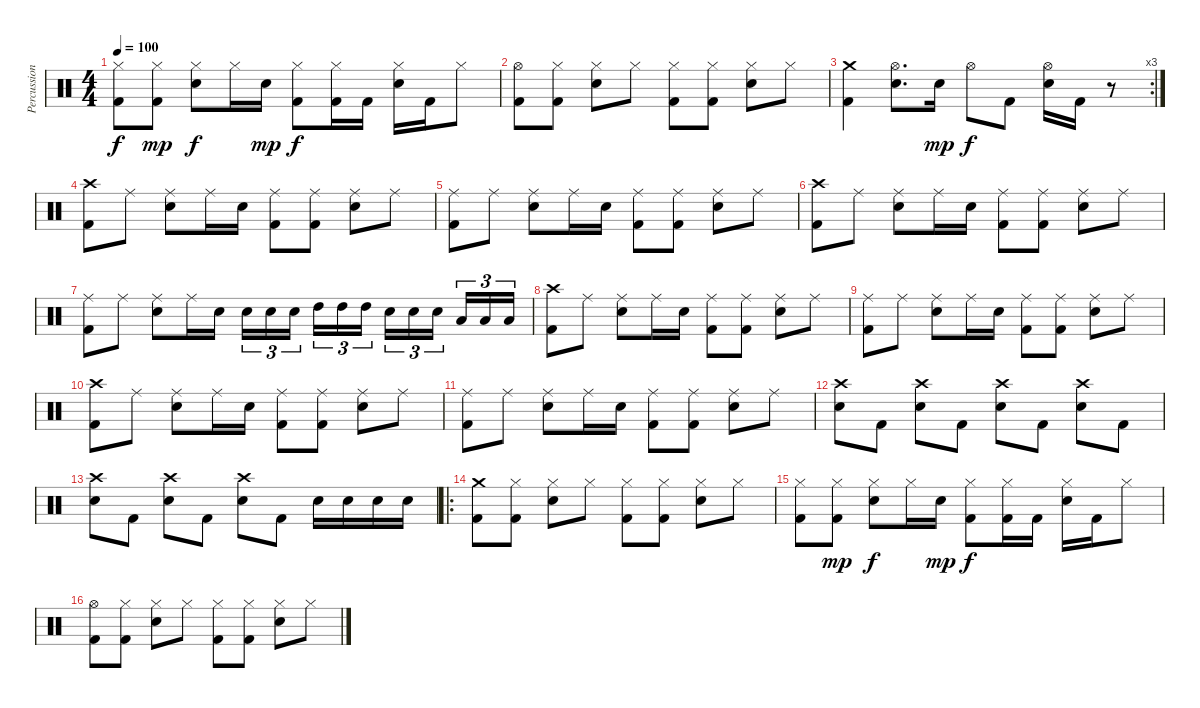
\track ("Percussion" "Percussion") {instrument percussion}
\staff {score}
\articulation defaults
\ts (4 4)
\tempo 100
\clef neutral
\ks c
("Kick (hit) 2" "Hi-Hat (closed)").8{dy f} ("Kick (hit) 2" "Hi-Hat (closed)").8{dy mp} ("Electric Snare (hit)" "Hi-Hat (closed)").8{dy f} "Hi-Hat (closed)".16 "Electric Snare (hit)".16{dy mp} ("Hi-Hat (closed)" "Kick (hit) 2").8{dy f} ("Hi-Hat (closed)" "Kick (hit) 2").16 "Kick (hit) 2".16 ("Electric Snare (hit)" "Hi-Hat (closed)").16 "Kick (hit) 2".16 "Hi-Hat (closed)".8 |
("Kick (hit) 2" "Hi-Hat (open)").8 ("Kick (hit) 2" "Hi-Hat (closed)").8 ("Electric Snare (hit)" "Hi-Hat (closed)").8 "Hi-Hat (closed)".8 ("Hi-Hat (closed)" "Kick (hit) 2").8 ("Hi-Hat (closed)" "Kick (hit) 2").8 ("Hi-Hat (closed)" "Electric Snare (hit)").8 "Hi-Hat (closed)".8 |
\rc 3
("Kick (hit) 2" "Crash medium (hit)").4 ("Electric Snare (hit)" "Hi-Hat (open)").8{d} "Electric Snare (hit)".16{dy mp} "Hi-Hat (open)".8{dy f} "Kick (hit) 2".8 ("Electric Snare (hit)" "Hi-Hat (open)").16 "Kick (hit) 2".16 r.8 |
("Kick (hit) 2" "Crash high (hit)").8 "Ride (middle)".8 ("Electric Snare (hit)" "Ride (middle)").8 "Ride (middle)".16 "Electric Snare (hit)".16 ("Ride (middle)" "Kick (hit) 2").8 ("Ride (middle)" "Kick (hit) 2").8 ("Electric Snare (hit)" "Ride (middle)").8 "Ride (middle)".8 |
("Kick (hit) 2" "Ride (middle)").8 "Ride (middle)".8 ("Electric Snare (hit)" "Ride (middle)").8 "Ride (middle)".16 "Electric Snare (hit)".16 ("Ride (middle)" "Kick (hit) 2").8 ("Ride (middle)" "Kick (hit) 2").8 ("Electric Snare (hit)" "Ride (middle)").8 "Ride (middle)".8 |
("Kick (hit) 2" "Crash high (hit)").8 "Ride (middle)".8 ("Electric Snare (hit)" "Ride (middle)").8 "Ride (middle)".16 "Electric Snare (hit)".16 ("Ride (middle)" "Kick (hit) 2").8 ("Ride (middle)" "Kick (hit) 2").8 ("Electric Snare (hit)" "Ride (middle)").8 "Ride (middle)".8 |
("Kick (hit) 2" "Ride (middle)").8 "Ride (middle)".8 ("Electric Snare (hit)" "Ride (middle)").8 "Ride (middle)".16 "Electric Snare (hit)".16 "Electric Snare (hit)".16{tu (3 2)} "Electric Snare (hit)".16{tu (3 2)} "Electric Snare (hit)".16{tu (3 2) beam splitsecondary} "High Tom (hit)".16{tu (3 2)} "High Tom (hit)".16{tu (3 2)} "High Tom (hit)".16{tu (3 2)} "Electric Snare (hit)".16{tu (3 2)} "Electric Snare (hit)".16{tu (3 2)} "Electric Snare (hit)".16{tu (3 2) beam splitsecondary} "Low Tom (hit)".16{tu (3 2)} "Low Tom (hit)".16{tu (3 2)} "Low Tom (hit)".16{tu (3 2)} |
("Kick (hit) 2" "Crash high (hit)").8 "Ride (middle)".8 ("Electric Snare (hit)" "Ride (middle)").8 "Ride (middle)".16 "Electric Snare (hit)".16 ("Ride (middle)" "Kick (hit) 2").8 ("Ride (middle)" "Kick (hit) 2").8 ("Electric Snare (hit)" "Ride (middle)").8 "Ride (middle)".8 |
("Kick (hit) 2" "Ride (middle)").8 "Ride (middle)".8 ("Electric Snare (hit)" "Ride (middle)").8 "Ride (middle)".16 "Electric Snare (hit)".16 ("Ride (middle)" "Kick (hit) 2").8 ("Ride (middle)" "Kick (hit) 2").8 ("Electric Snare (hit)" "Ride (middle)").8 "Ride (middle)".8 |
("Kick (hit) 2" "Crash high (hit)").8 "Ride (middle)".8 ("Electric Snare (hit)" "Ride (middle)").8 "Ride (middle)".16 "Electric Snare (hit)".16 ("Ride (middle)" "Kick (hit) 2").8 ("Ride (middle)" "Kick (hit) 2").8 ("Electric Snare (hit)" "Ride (middle)").8 "Ride (middle)".8 |
("Kick (hit) 2" "Ride (middle)").8 "Ride (middle)".8 ("Electric Snare (hit)" "Ride (middle)").8 "Ride (middle)".16 "Electric Snare (hit)".16 ("Ride (middle)" "Kick (hit) 2").8 ("Ride (middle)" "Kick (hit) 2").8 ("Ride (middle)" "Electric Snare (hit)").8 "Ride (middle)".8 |
("Electric Snare (hit)" "Crash high (hit)").8 "Kick (hit) 2".8 ("Electric Snare (hit)" "Crash high (hit)").8 "Kick (hit) 2".8 ("Electric Snare (hit)" "Crash high (hit)").8 "Kick (hit) 2".8 ("Electric Snare (hit)" "Crash high (hit)").8 "Kick (hit) 2".8 |
("Electric Snare (hit)" "Crash high (hit)").8 "Kick (hit) 2".8 ("Electric Snare (hit)" "Crash high (hit)").8 "Kick (hit) 2".8 ("Electric Snare (hit)" "Crash high (hit)").8 "Kick (hit) 2".8 "Electric Snare (hit)".16 "Electric Snare (hit)".16 "Electric Snare (hit)".16 "Electric Snare (hit)".16 |
\ro
("Kick (hit) 2" "Crash medium (hit)").8 ("Kick (hit) 2" "Hi-Hat (closed)").8 ("Electric Snare (hit)" "Hi-Hat (closed)").8 "Hi-Hat (closed)".8 ("Hi-Hat (closed)" "Kick (hit) 2").8 ("Hi-Hat (closed)" "Kick (hit) 2").8 ("Hi-Hat (closed)" "Electric Snare (hit)").8 "Hi-Hat (closed)".8 |
("Kick (hit) 2" "Hi-Hat (closed)").8 ("Kick (hit) 2" "Hi-Hat (closed)").8{dy mp} ("Electric Snare (hit)" "Hi-Hat (closed)").8{dy f} "Hi-Hat (closed)".16 "Electric Snare (hit)".16{dy mp} ("Hi-Hat (closed)" "Kick (hit) 2").8{dy f} ("Hi-Hat (closed)" "Kick (hit) 2").16 "Kick (hit) 2".16 ("Electric Snare (hit)" "Hi-Hat (closed)").16 "Kick (hit) 2".16 "Hi-Hat (closed)".8 |
("Kick (hit) 2" "Hi-Hat (open)").8 ("Kick (hit) 2" "Hi-Hat (closed)").8 ("Electric Snare (hit)" "Hi-Hat (closed)").8 "Hi-Hat (closed)".8 ("Hi-Hat (closed)" "Kick (hit) 2").8 ("Hi-Hat (closed)" "Kick (hit) 2").8 ("Hi-Hat (closed)" "Electric Snare (hit)").8 "Hi-Hat (closed)".8
